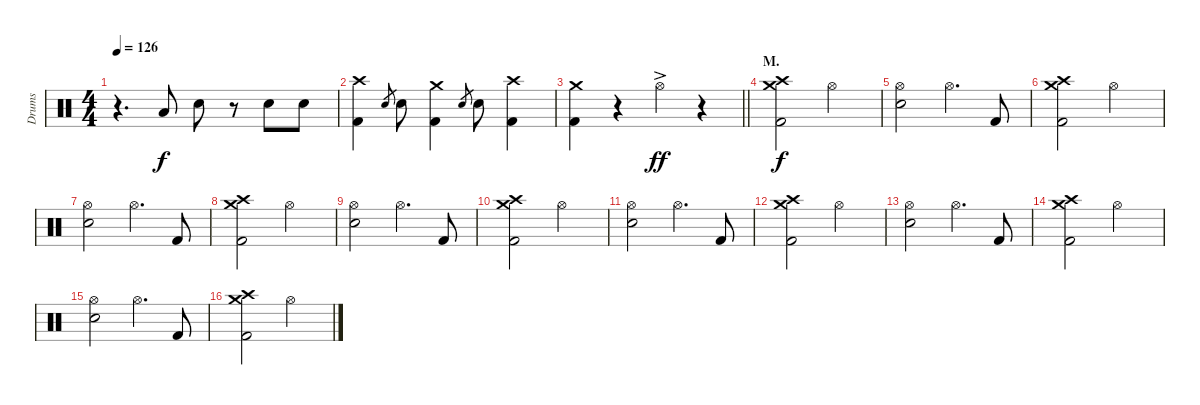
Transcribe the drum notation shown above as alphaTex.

\track ("Drums" "Drums") {instrument percussion}
\staff {score}
\articulation defaults
\ts (4 4)
\tempo 126
\clef neutral
\ks c
r.4{d dy ff} "Low Tom (hit)".8{dy f} "Electric Snare (hit)".8 r.8 "Electric Snare (hit)".8 "Electric Snare (hit)".8 |
("Crash high (hit)" "Kick (hit) 2").4 "Electric Snare (hit)".8{gr} "Electric Snare (hit)".8 ("Crash medium (hit)" "Kick (hit) 2").4 "Electric Snare (hit)".8{gr} "Electric Snare (hit)".8 ("Crash high (hit)" "Kick (hit) 2").4 |
\barLineRight lightlight
("Crash medium (hit)" "Kick (hit) 2").4 r.4 "Hi-Hat (open)"{ac}.4{dy ff} r.4 |
\section ("" "M.")
("Crash medium (hit)" "Crash high (hit)" "Kick (hit) 2").2{dy f} "Hi-Hat (open)".2 |
("Hi-Hat (open)" "Electric Snare (hit)").2 "Hi-Hat (open)".4{d} "Kick (hit) 2".8 |
("Crash medium (hit)" "Crash high (hit)" "Kick (hit) 2").2 "Hi-Hat (open)".2 |
("Hi-Hat (open)" "Electric Snare (hit)").2 "Hi-Hat (open)".4{d} "Kick (hit) 2".8 |
("Crash medium (hit)" "Crash high (hit)" "Kick (hit) 2").2 "Hi-Hat (open)".2 |
("Hi-Hat (open)" "Electric Snare (hit)").2 "Hi-Hat (open)".4{d} "Kick (hit) 2".8 |
("Crash medium (hit)" "Crash high (hit)" "Kick (hit) 2").2 "Hi-Hat (open)".2 |
("Hi-Hat (open)" "Electric Snare (hit)").2 "Hi-Hat (open)".4{d} "Kick (hit) 2".8 |
("Crash medium (hit)" "Crash high (hit)" "Kick (hit) 2").2 "Hi-Hat (open)".2 |
("Hi-Hat (open)" "Electric Snare (hit)").2 "Hi-Hat (open)".4{d} "Kick (hit) 2".8 |
("Crash medium (hit)" "Crash high (hit)" "Kick (hit) 2").2 "Hi-Hat (open)".2 |
("Hi-Hat (open)" "Electric Snare (hit)").2 "Hi-Hat (open)".4{d} "Kick (hit) 2".8 |
("Crash medium (hit)" "Crash high (hit)" "Kick (hit) 2").2 "Hi-Hat (open)".2
